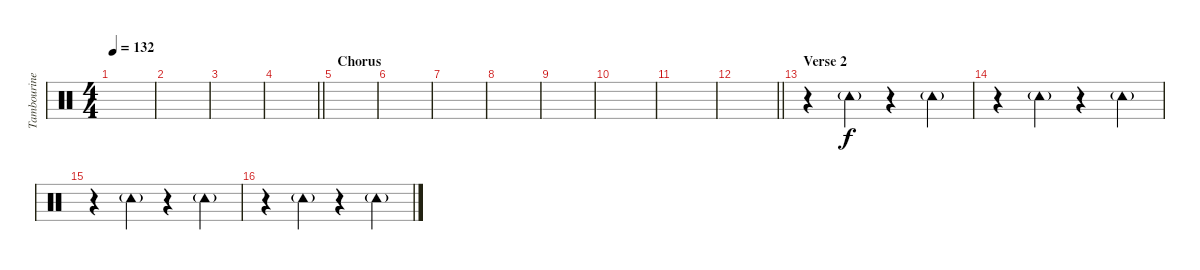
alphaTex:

\track ("Tambourine" "Tambourine") {instrument percussion}
\staff {score}
\articulation defaults
\ts (4 4)
\tempo 132
\clef neutral
\ks c
|
|
|
\barLineRight lightlight
|
\section ("" "Chorus")
|
|
|
|
|
|
|
\barLineRight lightlight
|
\section ("" "Verse 2")
r.4 "Tambourine (hit)"{g}.4 r.4 "Tambourine (hit)"{g}.4 |
r.4 "Tambourine (hit)"{g}.4 r.4 "Tambourine (hit)"{g}.4 |
r.4 "Tambourine (hit)"{g}.4 r.4 "Tambourine (hit)"{g}.4 |
r.4 "Tambourine (hit)"{g}.4 r.4 "Tambourine (hit)"{g}.4
